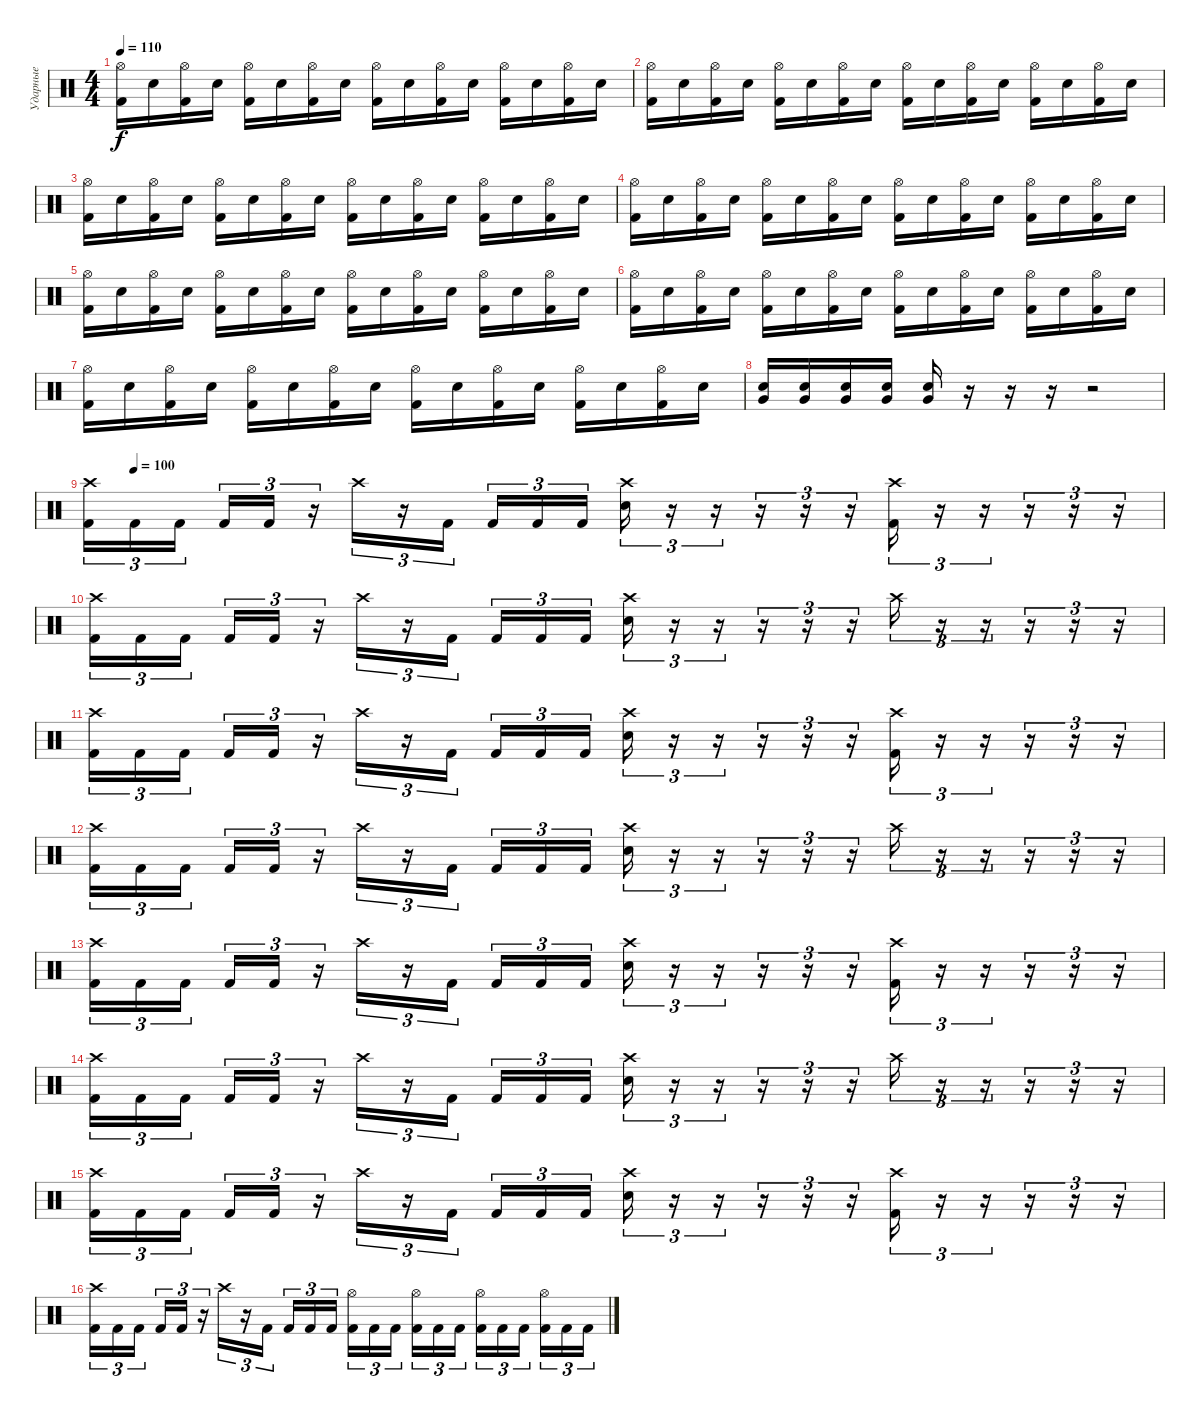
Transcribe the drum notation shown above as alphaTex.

\track ("Ударные" "Ударные") {instrument percussion}
\staff {score}
\articulation defaults
\ts (4 4)
\tempo 110
\clef neutral
\ks c
("Kick (hit) 2" "Hi-Hat (open)").16{dy f} "Electric Snare (hit)".16 ("Kick (hit) 2" "Hi-Hat (open)").16 "Electric Snare (hit)".16 ("Kick (hit) 2" "Hi-Hat (open)").16 "Electric Snare (hit)".16 ("Kick (hit) 2" "Hi-Hat (open)").16 "Electric Snare (hit)".16 ("Kick (hit) 2" "Hi-Hat (open)").16 "Electric Snare (hit)".16 ("Kick (hit) 2" "Hi-Hat (open)").16 "Electric Snare (hit)".16 ("Kick (hit) 2" "Hi-Hat (open)").16 "Electric Snare (hit)".16 ("Kick (hit) 2" "Hi-Hat (open)").16 "Electric Snare (hit)".16 |
("Kick (hit) 2" "Hi-Hat (open)").16 "Electric Snare (hit)".16 ("Kick (hit) 2" "Hi-Hat (open)").16 "Electric Snare (hit)".16 ("Kick (hit) 2" "Hi-Hat (open)").16 "Electric Snare (hit)".16 ("Kick (hit) 2" "Hi-Hat (open)").16 "Electric Snare (hit)".16 ("Kick (hit) 2" "Hi-Hat (open)").16 "Electric Snare (hit)".16 ("Kick (hit) 2" "Hi-Hat (open)").16 "Electric Snare (hit)".16 ("Kick (hit) 2" "Hi-Hat (open)").16 "Electric Snare (hit)".16 ("Kick (hit) 2" "Hi-Hat (open)").16 "Electric Snare (hit)".16 |
("Kick (hit) 2" "Hi-Hat (open)").16 "Electric Snare (hit)".16 ("Kick (hit) 2" "Hi-Hat (open)").16 "Electric Snare (hit)".16 ("Kick (hit) 2" "Hi-Hat (open)").16 "Electric Snare (hit)".16 ("Kick (hit) 2" "Hi-Hat (open)").16 "Electric Snare (hit)".16 ("Kick (hit) 2" "Hi-Hat (open)").16 "Electric Snare (hit)".16 ("Kick (hit) 2" "Hi-Hat (open)").16 "Electric Snare (hit)".16 ("Kick (hit) 2" "Hi-Hat (open)").16 "Electric Snare (hit)".16 ("Kick (hit) 2" "Hi-Hat (open)").16 "Electric Snare (hit)".16 |
("Kick (hit) 2" "Hi-Hat (open)").16 "Electric Snare (hit)".16 ("Kick (hit) 2" "Hi-Hat (open)").16 "Electric Snare (hit)".16 ("Kick (hit) 2" "Hi-Hat (open)").16 "Electric Snare (hit)".16 ("Kick (hit) 2" "Hi-Hat (open)").16 "Electric Snare (hit)".16 ("Kick (hit) 2" "Hi-Hat (open)").16 "Electric Snare (hit)".16 ("Kick (hit) 2" "Hi-Hat (open)").16 "Electric Snare (hit)".16 ("Kick (hit) 2" "Hi-Hat (open)").16 "Electric Snare (hit)".16 ("Kick (hit) 2" "Hi-Hat (open)").16 "Electric Snare (hit)".16 |
("Kick (hit) 2" "Hi-Hat (open)").16 "Electric Snare (hit)".16 ("Kick (hit) 2" "Hi-Hat (open)").16 "Electric Snare (hit)".16 ("Kick (hit) 2" "Hi-Hat (open)").16 "Electric Snare (hit)".16 ("Kick (hit) 2" "Hi-Hat (open)").16 "Electric Snare (hit)".16 ("Kick (hit) 2" "Hi-Hat (open)").16 "Electric Snare (hit)".16 ("Kick (hit) 2" "Hi-Hat (open)").16 "Electric Snare (hit)".16 ("Kick (hit) 2" "Hi-Hat (open)").16 "Electric Snare (hit)".16 ("Kick (hit) 2" "Hi-Hat (open)").16 "Electric Snare (hit)".16 |
("Kick (hit) 2" "Hi-Hat (open)").16 "Electric Snare (hit)".16 ("Kick (hit) 2" "Hi-Hat (open)").16 "Electric Snare (hit)".16 ("Kick (hit) 2" "Hi-Hat (open)").16 "Electric Snare (hit)".16 ("Kick (hit) 2" "Hi-Hat (open)").16 "Electric Snare (hit)".16 ("Kick (hit) 2" "Hi-Hat (open)").16 "Electric Snare (hit)".16 ("Kick (hit) 2" "Hi-Hat (open)").16 "Electric Snare (hit)".16 ("Kick (hit) 2" "Hi-Hat (open)").16 "Electric Snare (hit)".16 ("Kick (hit) 2" "Hi-Hat (open)").16 "Electric Snare (hit)".16 |
("Kick (hit) 2" "Hi-Hat (open)").16 "Electric Snare (hit)".16 ("Kick (hit) 2" "Hi-Hat (open)").16 "Electric Snare (hit)".16 ("Kick (hit) 2" "Hi-Hat (open)").16 "Electric Snare (hit)".16 ("Kick (hit) 2" "Hi-Hat (open)").16 "Electric Snare (hit)".16 ("Kick (hit) 2" "Hi-Hat (open)").16 "Electric Snare (hit)".16 ("Kick (hit) 2" "Hi-Hat (open)").16 "Electric Snare (hit)".16 ("Kick (hit) 2" "Hi-Hat (open)").16 "Electric Snare (hit)".16 ("Kick (hit) 2" "Hi-Hat (open)").16 "Electric Snare (hit)".16 |
("Electric Snare (hit)" "Very Low Tom (hit)").16 ("Electric Snare (hit)" "Very Low Tom (hit)").16 ("Electric Snare (hit)" "Very Low Tom (hit)").16 ("Electric Snare (hit)" "Very Low Tom (hit)").16 ("Electric Snare (hit)" "Very Low Tom (hit)").16 r.16 r.16 r.16 r.2 |
\tempo (100 0.041666666666666664)
("Kick (hit) 2" "Crash high (hit)").16{tu (3 2)} "Kick (hit) 2".16{tu (3 2)} "Kick (hit) 2".16{tu (3 2) beam splitsecondary} "Kick (hit) 2".16{tu (3 2)} "Kick (hit) 2".16{tu (3 2)} r.16{tu (3 2)} "Crash high (hit)".16{tu (3 2)} r.16{tu (3 2)} "Kick (hit) 2".16{tu (3 2) beam splitsecondary} "Kick (hit) 2".16{tu (3 2)} "Kick (hit) 2".16{tu (3 2)} "Kick (hit) 2".16{tu (3 2)} ("Electric Snare (hit)" "Crash high (hit)").16{tu (3 2)} r.16{tu (3 2)} r.16{tu (3 2)} r.16{tu (3 2)} r.16{tu (3 2)} r.16{tu (3 2)} ("Kick (hit) 2" "Crash high (hit)").16{tu (3 2)} r.16{tu (3 2)} r.16{tu (3 2)} r.16{tu (3 2)} r.16{tu (3 2)} r.16{tu (3 2)} |
("Kick (hit) 2" "Crash high (hit)").16{tu (3 2)} "Kick (hit) 2".16{tu (3 2)} "Kick (hit) 2".16{tu (3 2) beam splitsecondary} "Kick (hit) 2".16{tu (3 2)} "Kick (hit) 2".16{tu (3 2)} r.16{tu (3 2)} "Crash high (hit)".16{tu (3 2)} r.16{tu (3 2)} "Kick (hit) 2".16{tu (3 2) beam splitsecondary} "Kick (hit) 2".16{tu (3 2)} "Kick (hit) 2".16{tu (3 2)} "Kick (hit) 2".16{tu (3 2)} ("Electric Snare (hit)" "Crash high (hit)").16{tu (3 2)} r.16{tu (3 2)} r.16{tu (3 2)} r.16{tu (3 2)} r.16{tu (3 2)} r.16{tu (3 2)} "Crash high (hit)".16{tu (3 2)} r.16{tu (3 2)} r.16{tu (3 2)} r.16{tu (3 2)} r.16{tu (3 2)} r.16{tu (3 2)} |
("Kick (hit) 2" "Crash high (hit)").16{tu (3 2)} "Kick (hit) 2".16{tu (3 2)} "Kick (hit) 2".16{tu (3 2) beam splitsecondary} "Kick (hit) 2".16{tu (3 2)} "Kick (hit) 2".16{tu (3 2)} r.16{tu (3 2)} "Crash high (hit)".16{tu (3 2)} r.16{tu (3 2)} "Kick (hit) 2".16{tu (3 2) beam splitsecondary} "Kick (hit) 2".16{tu (3 2)} "Kick (hit) 2".16{tu (3 2)} "Kick (hit) 2".16{tu (3 2)} ("Electric Snare (hit)" "Crash high (hit)").16{tu (3 2)} r.16{tu (3 2)} r.16{tu (3 2)} r.16{tu (3 2)} r.16{tu (3 2)} r.16{tu (3 2)} ("Kick (hit) 2" "Crash high (hit)").16{tu (3 2)} r.16{tu (3 2)} r.16{tu (3 2)} r.16{tu (3 2)} r.16{tu (3 2)} r.16{tu (3 2)} |
("Kick (hit) 2" "Crash high (hit)").16{tu (3 2)} "Kick (hit) 2".16{tu (3 2)} "Kick (hit) 2".16{tu (3 2) beam splitsecondary} "Kick (hit) 2".16{tu (3 2)} "Kick (hit) 2".16{tu (3 2)} r.16{tu (3 2)} "Crash high (hit)".16{tu (3 2)} r.16{tu (3 2)} "Kick (hit) 2".16{tu (3 2) beam splitsecondary} "Kick (hit) 2".16{tu (3 2)} "Kick (hit) 2".16{tu (3 2)} "Kick (hit) 2".16{tu (3 2)} ("Electric Snare (hit)" "Crash high (hit)").16{tu (3 2)} r.16{tu (3 2)} r.16{tu (3 2)} r.16{tu (3 2)} r.16{tu (3 2)} r.16{tu (3 2)} "Crash high (hit)".16{tu (3 2)} r.16{tu (3 2)} r.16{tu (3 2)} r.16{tu (3 2)} r.16{tu (3 2)} r.16{tu (3 2)} |
("Kick (hit) 2" "Crash high (hit)").16{tu (3 2)} "Kick (hit) 2".16{tu (3 2)} "Kick (hit) 2".16{tu (3 2) beam splitsecondary} "Kick (hit) 2".16{tu (3 2)} "Kick (hit) 2".16{tu (3 2)} r.16{tu (3 2)} "Crash high (hit)".16{tu (3 2)} r.16{tu (3 2)} "Kick (hit) 2".16{tu (3 2) beam splitsecondary} "Kick (hit) 2".16{tu (3 2)} "Kick (hit) 2".16{tu (3 2)} "Kick (hit) 2".16{tu (3 2)} ("Electric Snare (hit)" "Crash high (hit)").16{tu (3 2)} r.16{tu (3 2)} r.16{tu (3 2)} r.16{tu (3 2)} r.16{tu (3 2)} r.16{tu (3 2)} ("Kick (hit) 2" "Crash high (hit)").16{tu (3 2)} r.16{tu (3 2)} r.16{tu (3 2)} r.16{tu (3 2)} r.16{tu (3 2)} r.16{tu (3 2)} |
("Kick (hit) 2" "Crash high (hit)").16{tu (3 2)} "Kick (hit) 2".16{tu (3 2)} "Kick (hit) 2".16{tu (3 2) beam splitsecondary} "Kick (hit) 2".16{tu (3 2)} "Kick (hit) 2".16{tu (3 2)} r.16{tu (3 2)} "Crash high (hit)".16{tu (3 2)} r.16{tu (3 2)} "Kick (hit) 2".16{tu (3 2) beam splitsecondary} "Kick (hit) 2".16{tu (3 2)} "Kick (hit) 2".16{tu (3 2)} "Kick (hit) 2".16{tu (3 2)} ("Electric Snare (hit)" "Crash high (hit)").16{tu (3 2)} r.16{tu (3 2)} r.16{tu (3 2)} r.16{tu (3 2)} r.16{tu (3 2)} r.16{tu (3 2)} "Crash high (hit)".16{tu (3 2)} r.16{tu (3 2)} r.16{tu (3 2)} r.16{tu (3 2)} r.16{tu (3 2)} r.16{tu (3 2)} |
("Kick (hit) 2" "Crash high (hit)").16{tu (3 2)} "Kick (hit) 2".16{tu (3 2)} "Kick (hit) 2".16{tu (3 2) beam splitsecondary} "Kick (hit) 2".16{tu (3 2)} "Kick (hit) 2".16{tu (3 2)} r.16{tu (3 2)} "Crash high (hit)".16{tu (3 2)} r.16{tu (3 2)} "Kick (hit) 2".16{tu (3 2) beam splitsecondary} "Kick (hit) 2".16{tu (3 2)} "Kick (hit) 2".16{tu (3 2)} "Kick (hit) 2".16{tu (3 2)} ("Electric Snare (hit)" "Crash high (hit)").16{tu (3 2)} r.16{tu (3 2)} r.16{tu (3 2)} r.16{tu (3 2)} r.16{tu (3 2)} r.16{tu (3 2)} ("Kick (hit) 2" "Crash high (hit)").16{tu (3 2)} r.16{tu (3 2)} r.16{tu (3 2)} r.16{tu (3 2)} r.16{tu (3 2)} r.16{tu (3 2)} |
("Kick (hit) 2" "Crash high (hit)").16{tu (3 2)} "Kick (hit) 2".16{tu (3 2)} "Kick (hit) 2".16{tu (3 2) beam splitsecondary} "Kick (hit) 2".16{tu (3 2)} "Kick (hit) 2".16{tu (3 2)} r.16{tu (3 2)} "Crash high (hit)".16{tu (3 2)} r.16{tu (3 2)} "Kick (hit) 2".16{tu (3 2) beam splitsecondary} "Kick (hit) 2".16{tu (3 2)} "Kick (hit) 2".16{tu (3 2)} "Kick (hit) 2".16{tu (3 2)} ("Kick (hit) 2" "Hi-Hat (open)").16{tu (3 2)} "Kick (hit) 2".16{tu (3 2)} "Kick (hit) 2".16{tu (3 2) beam splitsecondary} ("Kick (hit) 2" "Hi-Hat (open)").16{tu (3 2)} "Kick (hit) 2".16{tu (3 2)} "Kick (hit) 2".16{tu (3 2)} ("Kick (hit) 2" "Hi-Hat (open)").16{tu (3 2)} "Kick (hit) 2".16{tu (3 2)} "Kick (hit) 2".16{tu (3 2) beam splitsecondary} ("Kick (hit) 2" "Hi-Hat (open)").16{tu (3 2)} "Kick (hit) 2".16{tu (3 2)} "Kick (hit) 2".16{tu (3 2)}
